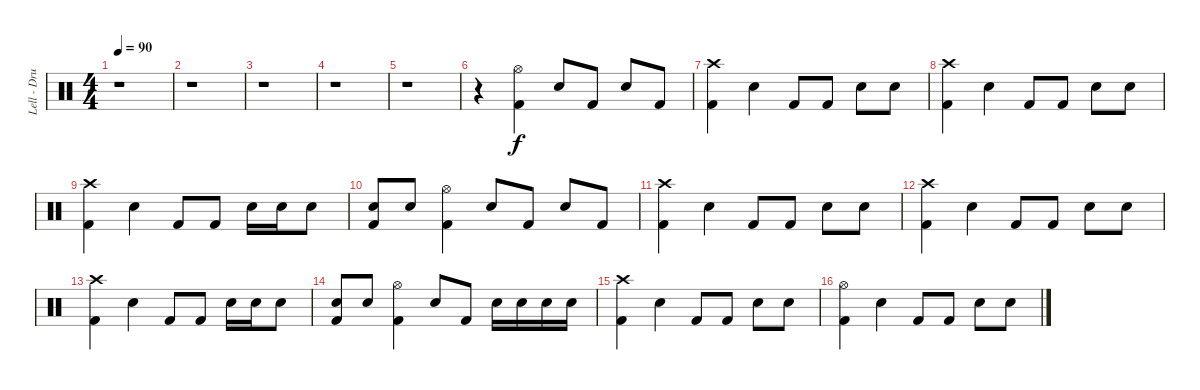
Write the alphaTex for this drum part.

\track ("Lell - Drums" "Lell - Dru") {instrument percussion}
\staff {score}
\articulation defaults
\ts (4 4)
\tempo 90
\clef neutral
\ks c
r.1{dy f} |
r.1 |
r.1 |
r.1 |
r.1 |
r.4 ("Hi-Hat (open)" "Kick (hit) 2").4 "Snare (hit) 2".8 "Kick (hit) 2".8 "Snare (hit) 2".8 "Kick (hit) 2".8 |
("Crash high (hit)" "Kick (hit) 2").4 "Snare (hit) 2".4 "Kick (hit) 2".8 "Kick (hit) 2".8 "Snare (hit) 2".8 "Snare (hit) 2".8 |
("Crash high (hit)" "Kick (hit) 2").4 "Snare (hit) 2".4 "Kick (hit) 2".8 "Kick (hit) 2".8 "Snare (hit) 2".8 "Snare (hit) 2".8 |
("Crash high (hit)" "Kick (hit) 2").4 "Snare (hit) 2".4 "Kick (hit) 2".8 "Kick (hit) 2".8 "Snare (hit) 2".16 "Snare (hit) 2".16 "Snare (hit) 2".8 |
("Snare (hit) 2" "Kick (hit) 2").8 "Snare (hit) 2".8 ("Hi-Hat (open)" "Kick (hit) 2").4 "Snare (hit) 2".8 "Kick (hit) 2".8 "Snare (hit) 2".8 "Kick (hit) 2".8 |
("Crash high (hit)" "Kick (hit) 2").4 "Snare (hit) 2".4 "Kick (hit) 2".8 "Kick (hit) 2".8 "Snare (hit) 2".8 "Snare (hit) 2".8 |
("Crash high (hit)" "Kick (hit) 2").4 "Snare (hit) 2".4 "Kick (hit) 2".8 "Kick (hit) 2".8 "Snare (hit) 2".8 "Snare (hit) 2".8 |
("Crash high (hit)" "Kick (hit) 2").4 "Snare (hit) 2".4 "Kick (hit) 2".8 "Kick (hit) 2".8 "Snare (hit) 2".16 "Snare (hit) 2".16 "Snare (hit) 2".8 |
("Snare (hit) 2" "Kick (hit) 2").8 "Snare (hit) 2".8 ("Hi-Hat (open)" "Kick (hit) 2").4 "Snare (hit) 2".8 "Kick (hit) 2".8 "Snare (hit) 2".16 "Snare (hit) 2".16 "Snare (hit) 2".16 "Snare (hit) 2".16 |
("Crash high (hit)" "Kick (hit) 2").4 "Snare (hit) 2".4 "Kick (hit) 2".8 "Kick (hit) 2".8 "Snare (hit) 2".8 "Snare (hit) 2".8 |
("Hi-Hat (open)" "Kick (hit) 2").4 "Snare (hit) 2".4 "Kick (hit) 2".8 "Kick (hit) 2".8 "Snare (hit) 2".8 "Snare (hit) 2".8
